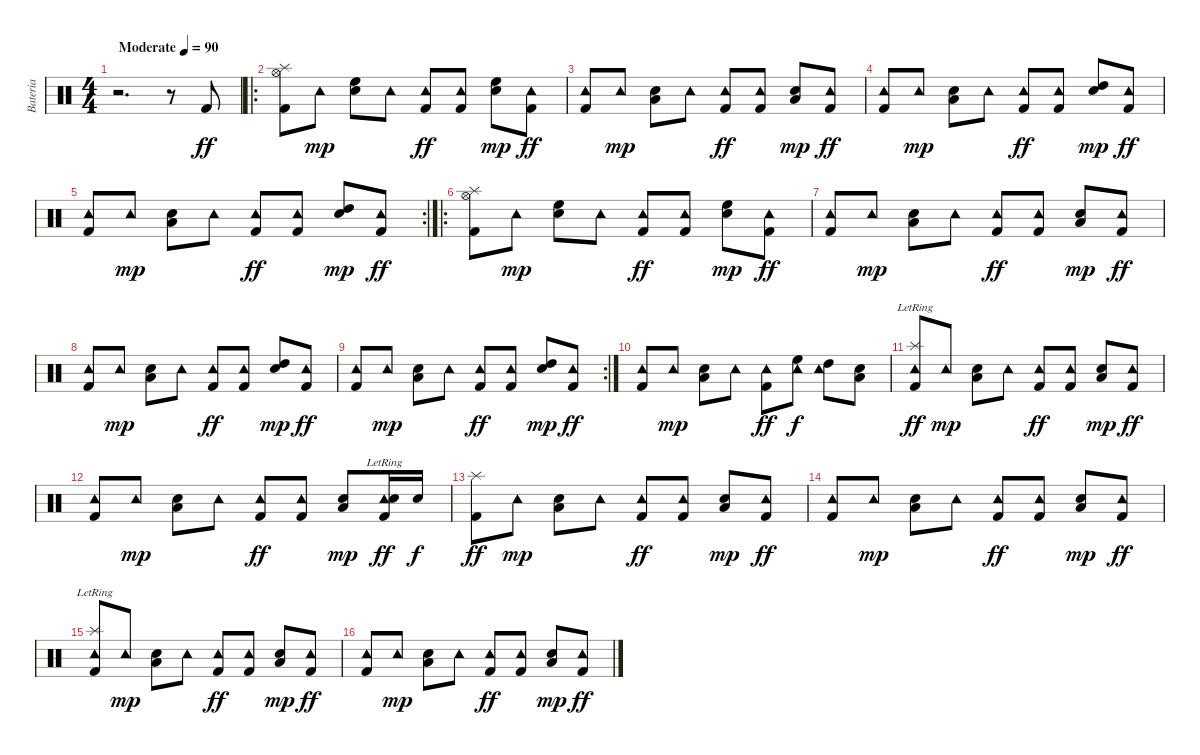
\track ("Bateria" "Bateria") {instrument percussion}
\staff {score}
\articulation defaults
\ts (4 4)
\tempo (90 "Moderate")
\clef neutral
\ks c
r.2{d dy ff} r.8 "Kick (hit) 2".8 |
\ro
("Hi-Hat (open)" "Splash (hit)" "Kick (hit) 2").8 "Tambourine (hit)".8{dy mp} ("High Floor Tom (hit)" "Electric Snare (hit)").8 "Tambourine (hit)".8 ("Tambourine (hit)" "Kick (hit) 2").8{dy ff} ("Tambourine (hit)" "Kick (hit) 2").8 ("High Floor Tom (hit)" "Electric Snare (hit)").8{dy mp} ("Tambourine (hit)" "Kick (hit) 2").8{dy ff} |
("Tambourine (hit)" "Kick (hit) 2").8 "Tambourine (hit)".8{dy mp} ("Low Tom (hit)" "Electric Snare (hit)").8 "Tambourine (hit)".8 ("Tambourine (hit)" "Kick (hit) 2").8{dy ff} ("Tambourine (hit)" "Kick (hit) 2").8 ("Low Tom (hit)" "Electric Snare (hit)").8{dy mp} ("Tambourine (hit)" "Kick (hit) 2").8{dy ff} |
("Tambourine (hit)" "Kick (hit) 2").8 "Tambourine (hit)".8{dy mp} ("Low Tom (hit)" "Electric Snare (hit)").8 "Tambourine (hit)".8 ("Tambourine (hit)" "Kick (hit) 2").8{dy ff} ("Tambourine (hit)" "Kick (hit) 2").8 ("High Tom (hit)" "Electric Snare (hit)").8{dy mp} ("Tambourine (hit)" "Kick (hit) 2").8{dy ff} |
\rc 2
("Tambourine (hit)" "Kick (hit) 2").8 "Tambourine (hit)".8{dy mp} ("Low Tom (hit)" "Electric Snare (hit)").8 "Tambourine (hit)".8 ("Tambourine (hit)" "Kick (hit) 2").8{dy ff} ("Tambourine (hit)" "Kick (hit) 2").8 ("High Tom (hit)" "Electric Snare (hit)").8{dy mp} ("Tambourine (hit)" "Kick (hit) 2").8{dy ff} |
\ro
("Hi-Hat (open)" "Splash (hit)" "Kick (hit) 2").8 "Tambourine (hit)".8{dy mp} ("High Floor Tom (hit)" "Electric Snare (hit)").8 "Tambourine (hit)".8 ("Tambourine (hit)" "Kick (hit) 2").8{dy ff} ("Tambourine (hit)" "Kick (hit) 2").8 ("High Floor Tom (hit)" "Electric Snare (hit)").8{dy mp} ("Tambourine (hit)" "Kick (hit) 2").8{dy ff} |
("Tambourine (hit)" "Kick (hit) 2").8 "Tambourine (hit)".8{dy mp} ("Low Tom (hit)" "Electric Snare (hit)").8 "Tambourine (hit)".8 ("Tambourine (hit)" "Kick (hit) 2").8{dy ff} ("Tambourine (hit)" "Kick (hit) 2").8 ("Low Tom (hit)" "Electric Snare (hit)").8{dy mp} ("Tambourine (hit)" "Kick (hit) 2").8{dy ff} |
("Tambourine (hit)" "Kick (hit) 2").8 "Tambourine (hit)".8{dy mp} ("Low Tom (hit)" "Electric Snare (hit)").8 "Tambourine (hit)".8 ("Tambourine (hit)" "Kick (hit) 2").8{dy ff} ("Tambourine (hit)" "Kick (hit) 2").8 ("High Tom (hit)" "Electric Snare (hit)").8{dy mp} ("Tambourine (hit)" "Kick (hit) 2").8{dy ff} |
\rc 2
("Tambourine (hit)" "Kick (hit) 2").8 "Tambourine (hit)".8{dy mp} ("Low Tom (hit)" "Electric Snare (hit)").8 "Tambourine (hit)".8 ("Tambourine (hit)" "Kick (hit) 2").8{dy ff} ("Tambourine (hit)" "Kick (hit) 2").8 ("High Tom (hit)" "Electric Snare (hit)").8{dy mp} ("Tambourine (hit)" "Kick (hit) 2").8{dy ff} |
("Tambourine (hit)" "Kick (hit) 2").8 "Tambourine (hit)".8{dy mp} ("Low Tom (hit)" "Electric Snare (hit)").8 "Tambourine (hit)".8 ("Tambourine (hit)" "Kick (hit) 2").8{dy ff} ("Tambourine (hit)" "High Floor Tom (hit)").8{dy f} ("Tambourine (hit)" "High Tom (hit)").8 ("Electric Snare (hit)" "Low Tom (hit)").8 |
("Tambourine (hit)" "Splash (hit)"{lr} "Kick (hit) 2").8{dy ff} "Tambourine (hit)".8{dy mp} ("Low Tom (hit)" "Electric Snare (hit)").8 "Tambourine (hit)".8 ("Tambourine (hit)" "Kick (hit) 2").8{dy ff} ("Tambourine (hit)" "Kick (hit) 2").8 ("Low Tom (hit)" "Electric Snare (hit)").8{dy mp} ("Tambourine (hit)" "Kick (hit) 2").8{dy ff} |
("Tambourine (hit)" "Kick (hit) 2").8 "Tambourine (hit)".8{dy mp} ("Low Tom (hit)" "Electric Snare (hit)").8 "Tambourine (hit)".8 ("Tambourine (hit)" "Kick (hit) 2").8{dy ff} ("Tambourine (hit)" "Kick (hit) 2").8 ("Low Tom (hit)" "Electric Snare (hit)").8{dy mp} ("Tambourine (hit)"{lr} "Electric Snare (hit)" "Kick (hit) 2"{lr}).16{dy ff} "Electric Snare (hit)".16{dy f} |
("Splash (hit)" "Kick (hit) 2").8{dy ff} "Tambourine (hit)".8{dy mp} ("Low Tom (hit)" "Electric Snare (hit)").8 "Tambourine (hit)".8 ("Tambourine (hit)" "Kick (hit) 2").8{dy ff} ("Tambourine (hit)" "Kick (hit) 2").8 ("Low Tom (hit)" "Electric Snare (hit)").8{dy mp} ("Tambourine (hit)" "Kick (hit) 2").8{dy ff} |
("Tambourine (hit)" "Kick (hit) 2").8 "Tambourine (hit)".8{dy mp} ("Low Tom (hit)" "Electric Snare (hit)").8 "Tambourine (hit)".8 ("Tambourine (hit)" "Kick (hit) 2").8{dy ff} ("Tambourine (hit)" "Kick (hit) 2").8 ("Low Tom (hit)" "Electric Snare (hit)").8{dy mp} ("Tambourine (hit)" "Kick (hit) 2").8{dy ff} |
("Tambourine (hit)" "Splash (hit)"{lr} "Kick (hit) 2").8 "Tambourine (hit)".8{dy mp} ("Low Tom (hit)" "Electric Snare (hit)").8 "Tambourine (hit)".8 ("Tambourine (hit)" "Kick (hit) 2").8{dy ff} ("Tambourine (hit)" "Kick (hit) 2").8 ("Low Tom (hit)" "Electric Snare (hit)").8{dy mp} ("Tambourine (hit)" "Kick (hit) 2").8{dy ff} |
("Tambourine (hit)" "Kick (hit) 2").8 "Tambourine (hit)".8{dy mp} ("Low Tom (hit)" "Electric Snare (hit)").8 "Tambourine (hit)".8 ("Tambourine (hit)" "Kick (hit) 2").8{dy ff} ("Tambourine (hit)" "Kick (hit) 2").8 ("Low Tom (hit)" "Electric Snare (hit)").8{dy mp} ("Tambourine (hit)" "Kick (hit) 2").8{dy ff}
